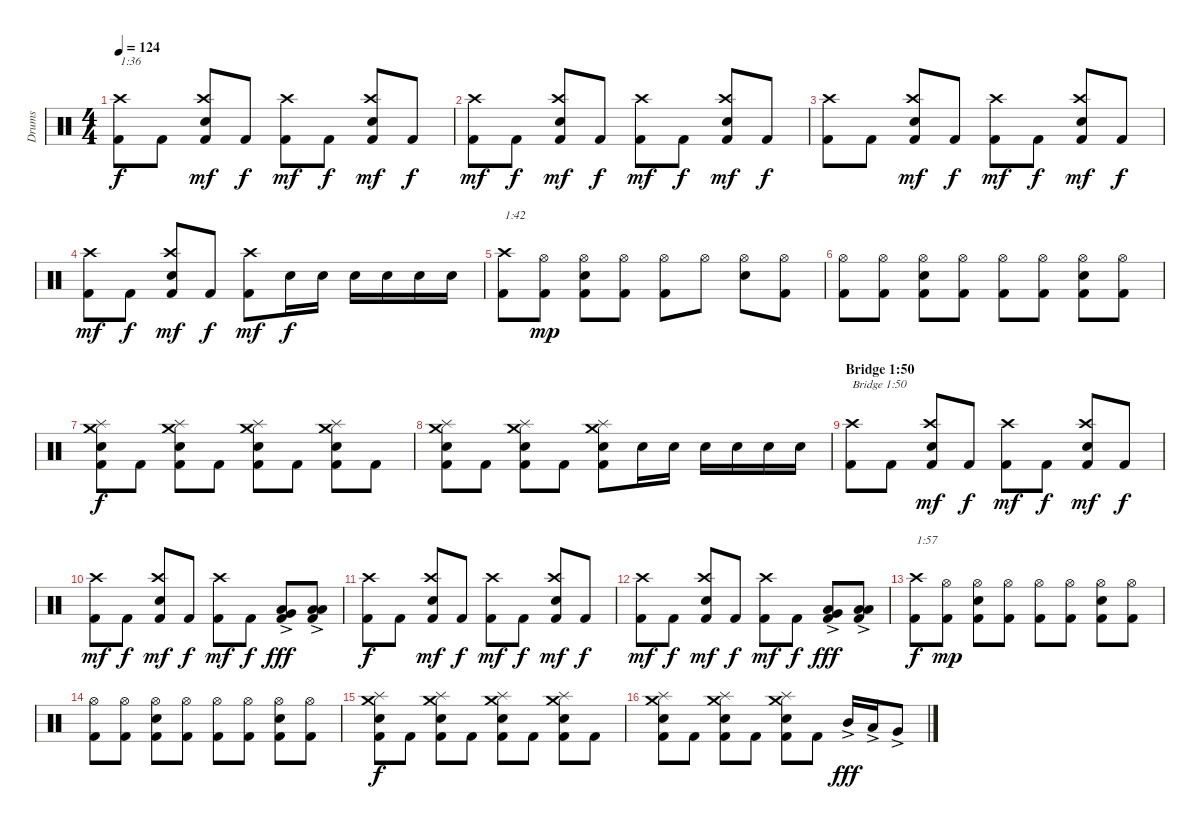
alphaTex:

\track ("Drums" "Drums") {instrument percussion}
\staff {score}
\articulation defaults
\ts (4 4)
\tempo 124
\clef neutral
\ks c
("Kick (hit) 2" "Crash high (hit)").8{txt "1:36" dy f} "Kick (hit) 2".8 ("Kick (hit) 2" "Electric Snare (hit)" "Crash high (hit)").8{dy mf} "Kick (hit) 2".8{dy f} ("Kick (hit) 2" "Crash high (hit)").8{dy mf} "Kick (hit) 2".8{dy f} ("Kick (hit) 2" "Electric Snare (hit)" "Crash high (hit)").8{dy mf} "Kick (hit) 2".8{dy f} |
("Kick (hit) 2" "Crash high (hit)").8{dy mf} "Kick (hit) 2".8{dy f} ("Kick (hit) 2" "Electric Snare (hit)" "Crash high (hit)").8{dy mf} "Kick (hit) 2".8{dy f} ("Kick (hit) 2" "Crash high (hit)").8{dy mf} "Kick (hit) 2".8{dy f} ("Kick (hit) 2" "Electric Snare (hit)" "Crash high (hit)").8{dy mf} "Kick (hit) 2".8{dy f} |
("Kick (hit) 2" "Crash high (hit)").8 "Kick (hit) 2".8 ("Kick (hit) 2" "Electric Snare (hit)" "Crash high (hit)").8{dy mf} "Kick (hit) 2".8{dy f} ("Kick (hit) 2" "Crash high (hit)").8{dy mf} "Kick (hit) 2".8{dy f} ("Kick (hit) 2" "Electric Snare (hit)" "Crash high (hit)").8{dy mf} "Kick (hit) 2".8{dy f} |
("Kick (hit) 2" "Crash high (hit)").8{dy mf} "Kick (hit) 2".8{dy f} ("Kick (hit) 2" "Electric Snare (hit)" "Crash high (hit)").8{dy mf} "Kick (hit) 2".8{dy f} ("Kick (hit) 2" "Crash high (hit)").8{dy mf} "Electric Snare (hit)".16{dy f} "Electric Snare (hit)".16 "Electric Snare (hit)".16 "Electric Snare (hit)".16 "Electric Snare (hit)".16 "Electric Snare (hit)".16 |
("Kick (hit) 2" "Crash high (hit)").8{txt "1:42"} ("Kick (hit) 2" "Hi-Hat (open)").8{dy mp} ("Kick (hit) 2" "Electric Snare (hit)" "Hi-Hat (open)").8 ("Kick (hit) 2" "Hi-Hat (open)").8 ("Kick (hit) 2" "Hi-Hat (open)").8 "Hi-Hat (open)".8 ("Electric Snare (hit)" "Hi-Hat (open)").8 ("Kick (hit) 2" "Hi-Hat (open)").8 |
("Kick (hit) 2" "Hi-Hat (open)").8 ("Kick (hit) 2" "Hi-Hat (open)").8 ("Kick (hit) 2" "Electric Snare (hit)" "Hi-Hat (open)").8 ("Kick (hit) 2" "Hi-Hat (open)").8 ("Kick (hit) 2" "Hi-Hat (open)").8 ("Kick (hit) 2" "Hi-Hat (open)").8 ("Kick (hit) 2" "Electric Snare (hit)" "Hi-Hat (open)").8 ("Kick (hit) 2" "Hi-Hat (open)").8 |
("Kick (hit) 2" "Electric Snare (hit)" "Splash (hit)" "Crash medium (hit)").8{dy f} "Kick (hit) 2".8 ("Kick (hit) 2" "Electric Snare (hit)" "Splash (hit)" "Crash medium (hit)").8 "Kick (hit) 2".8 ("Kick (hit) 2" "Electric Snare (hit)" "Splash (hit)" "Crash medium (hit)").8 "Kick (hit) 2".8 ("Kick (hit) 2" "Electric Snare (hit)" "Splash (hit)" "Crash medium (hit)").8 "Kick (hit) 2".8 |
("Kick (hit) 2" "Electric Snare (hit)" "Splash (hit)" "Crash medium (hit)").8 "Kick (hit) 2".8 ("Kick (hit) 2" "Electric Snare (hit)" "Splash (hit)" "Crash medium (hit)").8 "Kick (hit) 2".8 ("Kick (hit) 2" "Electric Snare (hit)" "Splash (hit)" "Crash medium (hit)").8 "Electric Snare (hit)".16 "Electric Snare (hit)".16 "Electric Snare (hit)".16 "Electric Snare (hit)".16 "Electric Snare (hit)".16 "Electric Snare (hit)".16 |
\section ("" "Bridge 1:50")
("Kick (hit) 2" "Crash high (hit)").8{txt "Bridge 1:50"} "Kick (hit) 2".8 ("Kick (hit) 2" "Electric Snare (hit)" "Crash high (hit)").8{dy mf} "Kick (hit) 2".8{dy f} ("Kick (hit) 2" "Crash high (hit)").8{dy mf} "Kick (hit) 2".8{dy f} ("Kick (hit) 2" "Electric Snare (hit)" "Crash high (hit)").8{dy mf} "Kick (hit) 2".8{dy f} |
("Kick (hit) 2" "Crash high (hit)").8{dy mf} "Kick (hit) 2".8{dy f} ("Kick (hit) 2" "Electric Snare (hit)" "Crash high (hit)").8{dy mf} "Kick (hit) 2".8{dy f} ("Kick (hit) 2" "Crash high (hit)").8{dy mf} "Kick (hit) 2".8{dy f} ("Kick (hit) 2" "Very Low Tom (hit)"{ac} "Low Tom (hit)"{ac}).8{dy fff} ("Kick (hit) 2" "Low Floor Tom (hit)"{ac} "Low Floor Tom (hit)"{ac}).8 |
("Kick (hit) 2" "Crash high (hit)").8{dy f} "Kick (hit) 2".8 ("Kick (hit) 2" "Electric Snare (hit)" "Crash high (hit)").8{dy mf} "Kick (hit) 2".8{dy f} ("Kick (hit) 2" "Crash high (hit)").8{dy mf} "Kick (hit) 2".8{dy f} ("Kick (hit) 2" "Electric Snare (hit)" "Crash high (hit)").8{dy mf} "Kick (hit) 2".8{dy f} |
("Kick (hit) 2" "Crash high (hit)").8{dy mf} "Kick (hit) 2".8{dy f} ("Kick (hit) 2" "Electric Snare (hit)" "Crash high (hit)").8{dy mf} "Kick (hit) 2".8{dy f} ("Kick (hit) 2" "Crash high (hit)").8{dy mf} "Kick (hit) 2".8{dy f} ("Kick (hit) 2" "Very Low Tom (hit)"{ac} "Low Tom (hit)"{ac}).8{dy fff} ("Kick (hit) 2" "Low Floor Tom (hit)"{ac} "Low Floor Tom (hit)"{ac}).8 |
("Kick (hit) 2" "Crash high (hit)").8{txt "1:57" dy f} ("Kick (hit) 2" "Hi-Hat (open)").8{dy mp} ("Kick (hit) 2" "Electric Snare (hit)" "Hi-Hat (open)").8 ("Kick (hit) 2" "Hi-Hat (open)").8 ("Kick (hit) 2" "Hi-Hat (open)").8 ("Kick (hit) 2" "Hi-Hat (open)").8 ("Kick (hit) 2" "Electric Snare (hit)" "Hi-Hat (open)").8 ("Kick (hit) 2" "Hi-Hat (open)").8 |
("Kick (hit) 2" "Hi-Hat (open)").8 ("Kick (hit) 2" "Hi-Hat (open)").8 ("Kick (hit) 2" "Electric Snare (hit)" "Hi-Hat (open)").8 ("Kick (hit) 2" "Hi-Hat (open)").8 ("Kick (hit) 2" "Hi-Hat (open)").8 ("Kick (hit) 2" "Hi-Hat (open)").8 ("Kick (hit) 2" "Electric Snare (hit)" "Hi-Hat (open)").8 ("Kick (hit) 2" "Hi-Hat (open)").8 |
("Kick (hit) 2" "Electric Snare (hit)" "Splash (hit)" "Crash medium (hit)").8{dy f} "Kick (hit) 2".8 ("Kick (hit) 2" "Electric Snare (hit)" "Splash (hit)" "Crash medium (hit)").8 "Kick (hit) 2".8 ("Kick (hit) 2" "Electric Snare (hit)" "Splash (hit)" "Crash medium (hit)").8 "Kick (hit) 2".8 ("Kick (hit) 2" "Electric Snare (hit)" "Splash (hit)" "Crash medium (hit)").8 "Kick (hit) 2".8 |
("Kick (hit) 2" "Electric Snare (hit)" "Splash (hit)" "Crash medium (hit)").8 "Kick (hit) 2".8 ("Kick (hit) 2" "Electric Snare (hit)" "Splash (hit)" "Crash medium (hit)").8 "Kick (hit) 2".8 ("Kick (hit) 2" "Electric Snare (hit)" "Splash (hit)" "Crash medium (hit)").8 "Kick (hit) 2".8 "Mid Tom (hit)"{ac}.16{dy fff} "Low Tom (hit)"{ac}.16 "Very Low Tom (hit)"{ac}.8
